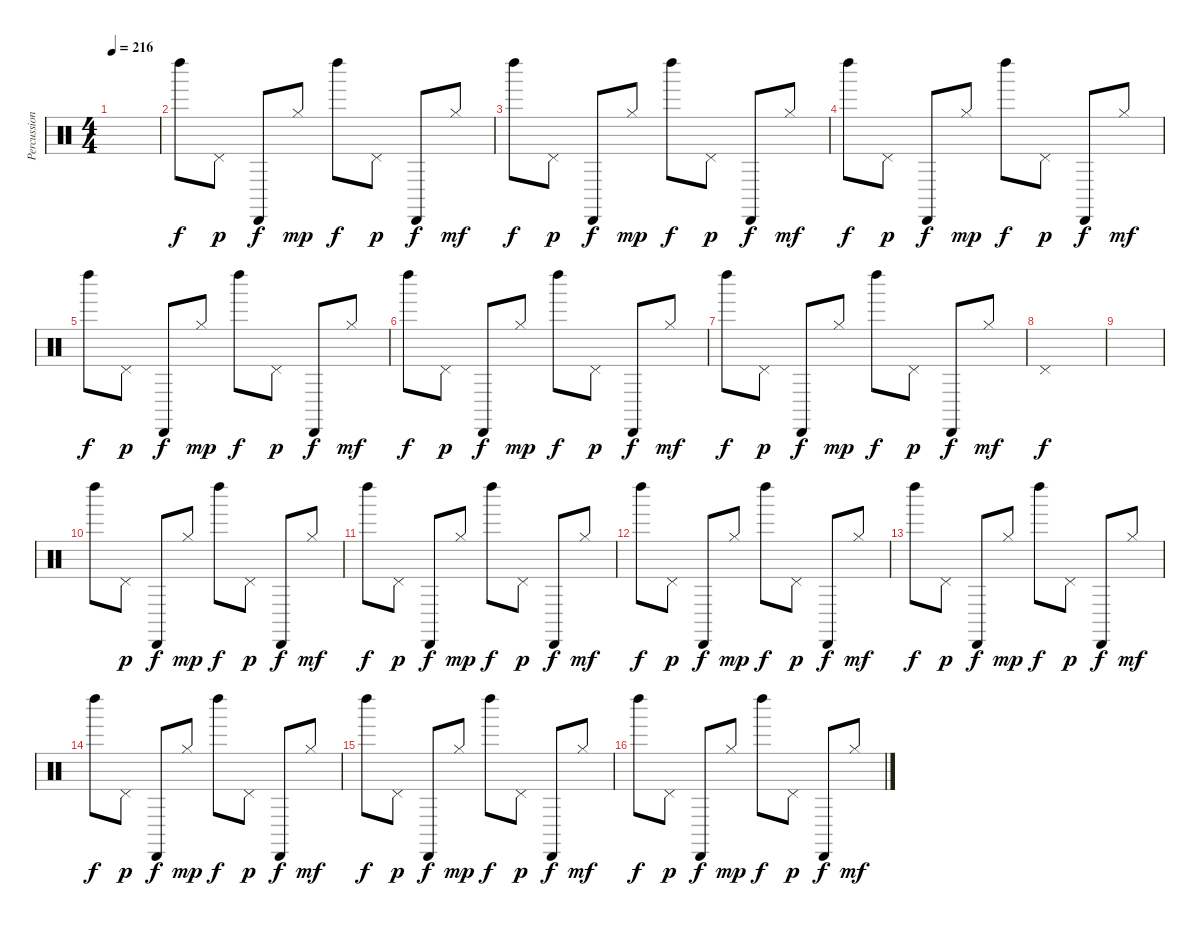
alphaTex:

\track ("Percussions" "Percussion") {instrument percussion}
\staff {score}
\articulation defaults
\ts (4 4)
\tempo 216
\clef neutral
\ks c
|
"Left Maraca (hit)".8 "Pedal Hi-Hat (hit)".8{dy p} "Cabasa (hit)".8{dy f} "Hi-Hat (closed)".8{dy mp} "Left Maraca (hit)".8{dy f} "Pedal Hi-Hat (hit)".8{dy p} "Cabasa (hit)".8{dy f} "Hi-Hat (closed)".8{dy mf} |
"Left Maraca (hit)".8{dy f} "Pedal Hi-Hat (hit)".8{dy p} "Cabasa (hit)".8{dy f} "Hi-Hat (closed)".8{dy mp} "Left Maraca (hit)".8{dy f} "Pedal Hi-Hat (hit)".8{dy p} "Cabasa (hit)".8{dy f} "Hi-Hat (closed)".8{dy mf} |
"Left Maraca (hit)".8{dy f} "Pedal Hi-Hat (hit)".8{dy p} "Cabasa (hit)".8{dy f} "Hi-Hat (closed)".8{dy mp} "Left Maraca (hit)".8{dy f} "Pedal Hi-Hat (hit)".8{dy p} "Cabasa (hit)".8{dy f} "Hi-Hat (closed)".8{dy mf} |
"Left Maraca (hit)".8{dy f} "Pedal Hi-Hat (hit)".8{dy p} "Cabasa (hit)".8{dy f} "Hi-Hat (closed)".8{dy mp} "Left Maraca (hit)".8{dy f} "Pedal Hi-Hat (hit)".8{dy p} "Cabasa (hit)".8{dy f} "Hi-Hat (closed)".8{dy mf} |
"Left Maraca (hit)".8{dy f} "Pedal Hi-Hat (hit)".8{dy p} "Cabasa (hit)".8{dy f} "Hi-Hat (closed)".8{dy mp} "Left Maraca (hit)".8{dy f} "Pedal Hi-Hat (hit)".8{dy p} "Cabasa (hit)".8{dy f} "Hi-Hat (closed)".8{dy mf} |
"Left Maraca (hit)".8{dy f} "Pedal Hi-Hat (hit)".8{dy p} "Cabasa (hit)".8{dy f} "Hi-Hat (closed)".8{dy mp} "Left Maraca (hit)".8{dy f} "Pedal Hi-Hat (hit)".8{dy p} "Cabasa (hit)".8{dy f} "Hi-Hat (closed)".8{dy mf} |
"Pedal Hi-Hat (hit)".1{dy f} |
|
"Left Maraca (hit)".8 "Pedal Hi-Hat (hit)".8{dy p} "Cabasa (hit)".8{dy f} "Hi-Hat (closed)".8{dy mp} "Left Maraca (hit)".8{dy f} "Pedal Hi-Hat (hit)".8{dy p} "Cabasa (hit)".8{dy f} "Hi-Hat (closed)".8{dy mf} |
"Left Maraca (hit)".8{dy f} "Pedal Hi-Hat (hit)".8{dy p} "Cabasa (hit)".8{dy f} "Hi-Hat (closed)".8{dy mp} "Left Maraca (hit)".8{dy f} "Pedal Hi-Hat (hit)".8{dy p} "Cabasa (hit)".8{dy f} "Hi-Hat (closed)".8{dy mf} |
"Left Maraca (hit)".8{dy f} "Pedal Hi-Hat (hit)".8{dy p} "Cabasa (hit)".8{dy f} "Hi-Hat (closed)".8{dy mp} "Left Maraca (hit)".8{dy f} "Pedal Hi-Hat (hit)".8{dy p} "Cabasa (hit)".8{dy f} "Hi-Hat (closed)".8{dy mf} |
"Left Maraca (hit)".8{dy f} "Pedal Hi-Hat (hit)".8{dy p} "Cabasa (hit)".8{dy f} "Hi-Hat (closed)".8{dy mp} "Left Maraca (hit)".8{dy f} "Pedal Hi-Hat (hit)".8{dy p} "Cabasa (hit)".8{dy f} "Hi-Hat (closed)".8{dy mf} |
"Left Maraca (hit)".8{dy f} "Pedal Hi-Hat (hit)".8{dy p} "Cabasa (hit)".8{dy f} "Hi-Hat (closed)".8{dy mp} "Left Maraca (hit)".8{dy f} "Pedal Hi-Hat (hit)".8{dy p} "Cabasa (hit)".8{dy f} "Hi-Hat (closed)".8{dy mf} |
"Left Maraca (hit)".8{dy f} "Pedal Hi-Hat (hit)".8{dy p} "Cabasa (hit)".8{dy f} "Hi-Hat (closed)".8{dy mp} "Left Maraca (hit)".8{dy f} "Pedal Hi-Hat (hit)".8{dy p} "Cabasa (hit)".8{dy f} "Hi-Hat (closed)".8{dy mf} |
"Left Maraca (hit)".8{dy f} "Pedal Hi-Hat (hit)".8{dy p} "Cabasa (hit)".8{dy f} "Hi-Hat (closed)".8{dy mp} "Left Maraca (hit)".8{dy f} "Pedal Hi-Hat (hit)".8{dy p} "Cabasa (hit)".8{dy f} "Hi-Hat (closed)".8{dy mf}
